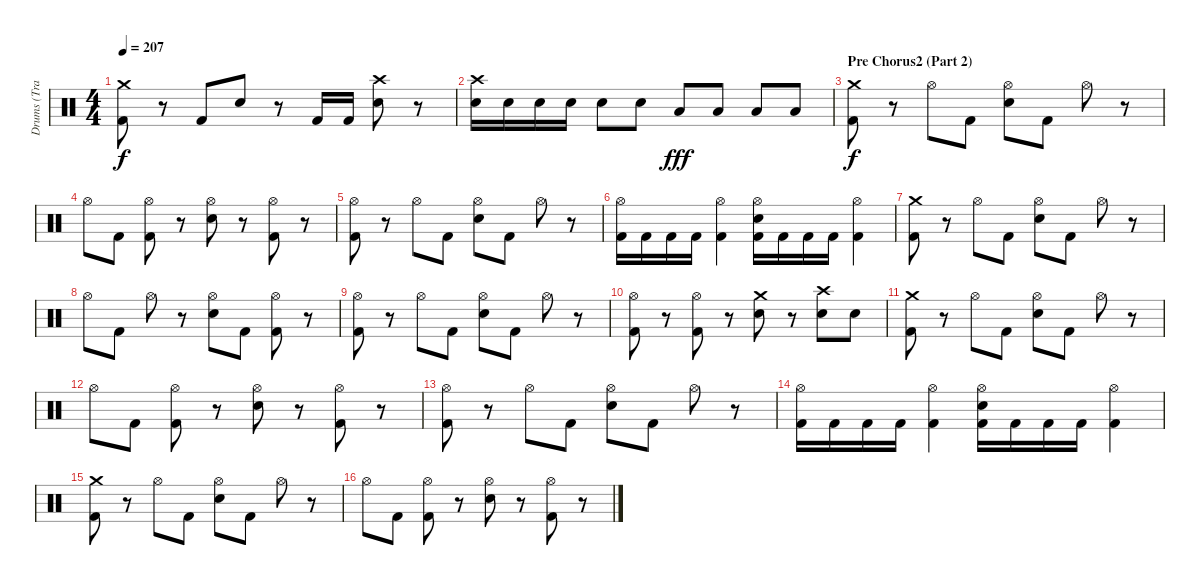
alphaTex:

\track ("Drums (Travis)" "Drums (Tra") {instrument percussion}
\staff {score}
\articulation defaults
\ts (4 4)
\tempo 207
\clef neutral
\ks c
("Crash medium (hit)" "Kick (hit) 2").8{dy f} r.8 "Kick (hit) 2".8 "Snare (hit) 2".8 r.8 "Kick (hit) 2".16 "Kick (hit) 2".16 ("Crash high (hit)" "Snare (hit) 2").8 r.8 |
("Crash high (hit)" "Snare (hit) 2").16 "Snare (hit) 2".16 "Snare (hit) 2".16 "Snare (hit) 2".16 "Snare (hit) 2".8 "Snare (hit) 2".8 "Low Tom (hit)".8{dy fff} "Low Tom (hit)".8 "Low Floor Tom (hit)".8 "Low Floor Tom (hit)".8 |
\section ("" "Pre Chorus2 (Part 2)")
("Crash medium (hit)" "Kick (hit) 2").8{dy f} r.8 "Hi-Hat (open)".8 "Kick (hit) 2".8 ("Hi-Hat (open)" "Snare (hit) 2").8 "Kick (hit) 2".8 "Hi-Hat (open)".8 r.8 |
"Hi-Hat (open)".8 "Kick (hit) 2".8 ("Hi-Hat (open)" "Kick (hit) 2").8 r.8 ("Hi-Hat (open)" "Snare (hit) 2").8 r.8 ("Hi-Hat (open)" "Kick (hit) 2").8 r.8 |
("Hi-Hat (open)" "Kick (hit) 2").8 r.8 "Hi-Hat (open)".8 "Kick (hit) 2".8 ("Hi-Hat (open)" "Snare (hit) 2").8 "Kick (hit) 2".8 "Hi-Hat (open)".8 r.8 |
("Hi-Hat (open)" "Kick (hit) 2").16 "Kick (hit) 2".16 "Kick (hit) 2".16 "Kick (hit) 2".16 ("Hi-Hat (open)" "Kick (hit) 2").4 ("Hi-Hat (open)" "Snare (hit) 2" "Kick (hit) 2").16 "Kick (hit) 2".16 "Kick (hit) 2".16 "Kick (hit) 2".16 ("Hi-Hat (open)" "Kick (hit) 2").4 |
("Crash medium (hit)" "Kick (hit) 2").8 r.8 "Hi-Hat (open)".8 "Kick (hit) 2".8 ("Hi-Hat (open)" "Snare (hit) 2").8 "Kick (hit) 2".8 "Hi-Hat (open)".8 r.8 |
"Hi-Hat (open)".8 "Kick (hit) 2".8 "Hi-Hat (open)".8 r.8 ("Hi-Hat (open)" "Snare (hit) 2").8 "Kick (hit) 2".8 ("Hi-Hat (open)" "Kick (hit) 2").8 r.8 |
("Hi-Hat (open)" "Kick (hit) 2").8 r.8 "Hi-Hat (open)".8 "Kick (hit) 2".8 ("Hi-Hat (open)" "Snare (hit) 2").8 "Kick (hit) 2".8 "Hi-Hat (open)".8 r.8 |
("Hi-Hat (open)" "Kick (hit) 2").8 r.8 ("Hi-Hat (open)" "Kick (hit) 2").8 r.8 ("Crash medium (hit)" "Snare (hit) 2").8 r.8 ("Crash high (hit)" "Snare (hit) 2").8 "Snare (hit) 2".8 |
("Crash medium (hit)" "Kick (hit) 2").8 r.8 "Hi-Hat (open)".8 "Kick (hit) 2".8 ("Hi-Hat (open)" "Snare (hit) 2").8 "Kick (hit) 2".8 "Hi-Hat (open)".8 r.8 |
"Hi-Hat (open)".8 "Kick (hit) 2".8 ("Hi-Hat (open)" "Kick (hit) 2").8 r.8 ("Hi-Hat (open)" "Snare (hit) 2").8 r.8 ("Hi-Hat (open)" "Kick (hit) 2").8 r.8 |
("Hi-Hat (open)" "Kick (hit) 2").8 r.8 "Hi-Hat (open)".8 "Kick (hit) 2".8 ("Hi-Hat (open)" "Snare (hit) 2").8 "Kick (hit) 2".8 "Hi-Hat (open)".8 r.8 |
("Hi-Hat (open)" "Kick (hit) 2").16 "Kick (hit) 2".16 "Kick (hit) 2".16 "Kick (hit) 2".16 ("Hi-Hat (open)" "Kick (hit) 2").4 ("Hi-Hat (open)" "Snare (hit) 2" "Kick (hit) 2").16 "Kick (hit) 2".16 "Kick (hit) 2".16 "Kick (hit) 2".16 ("Hi-Hat (open)" "Kick (hit) 2").4 |
("Crash medium (hit)" "Kick (hit) 2").8 r.8 "Hi-Hat (open)".8 "Kick (hit) 2".8 ("Hi-Hat (open)" "Snare (hit) 2").8 "Kick (hit) 2".8 "Hi-Hat (open)".8 r.8 |
"Hi-Hat (open)".8 "Kick (hit) 2".8 ("Hi-Hat (open)" "Kick (hit) 2").8 r.8 ("Hi-Hat (open)" "Snare (hit) 2").8 r.8 ("Hi-Hat (open)" "Kick (hit) 2").8 r.8
